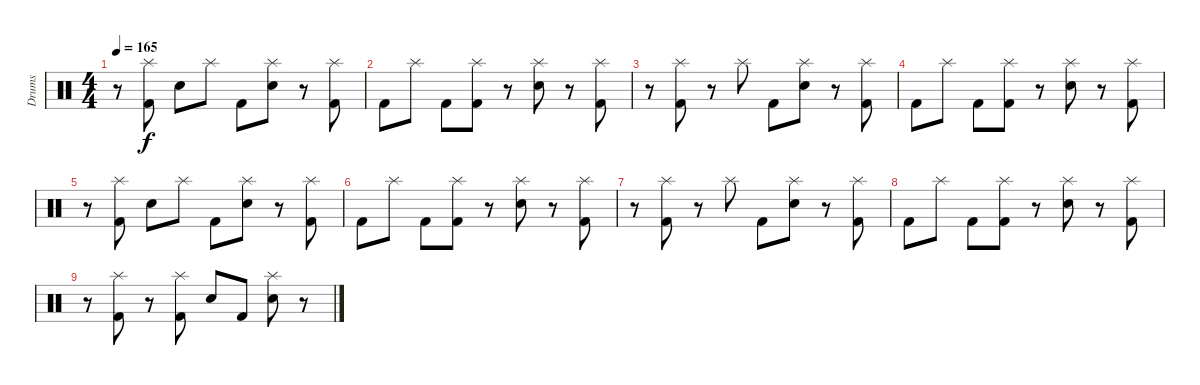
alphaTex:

\track ("Drums" "Drums") {instrument percussion}
\staff {score}
\articulation defaults
\ts (4 4)
\tempo 165
\clef neutral
\ks c
r.8{dy f} ("Splash (hit)" "Kick (hit) 2").8 "Electric Snare (hit)".8 "Splash (hit)".8 "Kick (hit) 2".8 ("Splash (hit)" "Electric Snare (hit)").8 r.8 ("Splash (hit)" "Kick (hit) 2").8 |
"Kick (hit) 2".8 "Splash (hit)".8 "Kick (hit) 2".8 ("Splash (hit)" "Kick (hit) 2").8 r.8 ("Splash (hit)" "Electric Snare (hit)").8 r.8 ("Splash (hit)" "Kick (hit) 2").8 |
r.8 ("Splash (hit)" "Kick (hit) 2").8 r.8 "Splash (hit)".8 "Kick (hit) 2".8 ("Splash (hit)" "Electric Snare (hit)").8 r.8 ("Splash (hit)" "Kick (hit) 2").8 |
"Kick (hit) 2".8 "Splash (hit)".8 "Kick (hit) 2".8 ("Splash (hit)" "Kick (hit) 2").8 r.8 ("Splash (hit)" "Electric Snare (hit)").8 r.8 ("Splash (hit)" "Kick (hit) 2").8 |
r.8 ("Splash (hit)" "Kick (hit) 2").8 "Electric Snare (hit)".8 "Splash (hit)".8 "Kick (hit) 2".8 ("Splash (hit)" "Electric Snare (hit)").8 r.8 ("Splash (hit)" "Kick (hit) 2").8 |
"Kick (hit) 2".8 "Splash (hit)".8 "Kick (hit) 2".8 ("Splash (hit)" "Kick (hit) 2").8 r.8 ("Splash (hit)" "Electric Snare (hit)").8 r.8 ("Splash (hit)" "Kick (hit) 2").8 |
r.8 ("Splash (hit)" "Kick (hit) 2").8 r.8 "Splash (hit)".8 "Kick (hit) 2".8 ("Splash (hit)" "Electric Snare (hit)").8 r.8 ("Splash (hit)" "Kick (hit) 2").8 |
"Kick (hit) 2".8 "Splash (hit)".8 "Kick (hit) 2".8 ("Splash (hit)" "Kick (hit) 2").8 r.8 ("Splash (hit)" "Electric Snare (hit)").8 r.8 ("Splash (hit)" "Kick (hit) 2").8 |
r.8 ("Splash (hit)" "Kick (hit) 2").8 r.8 ("Splash (hit)" "Kick (hit) 2").8 "Electric Snare (hit)".8 "Kick (hit) 2".8 ("Splash (hit)" "Electric Snare (hit)").8 r.8
